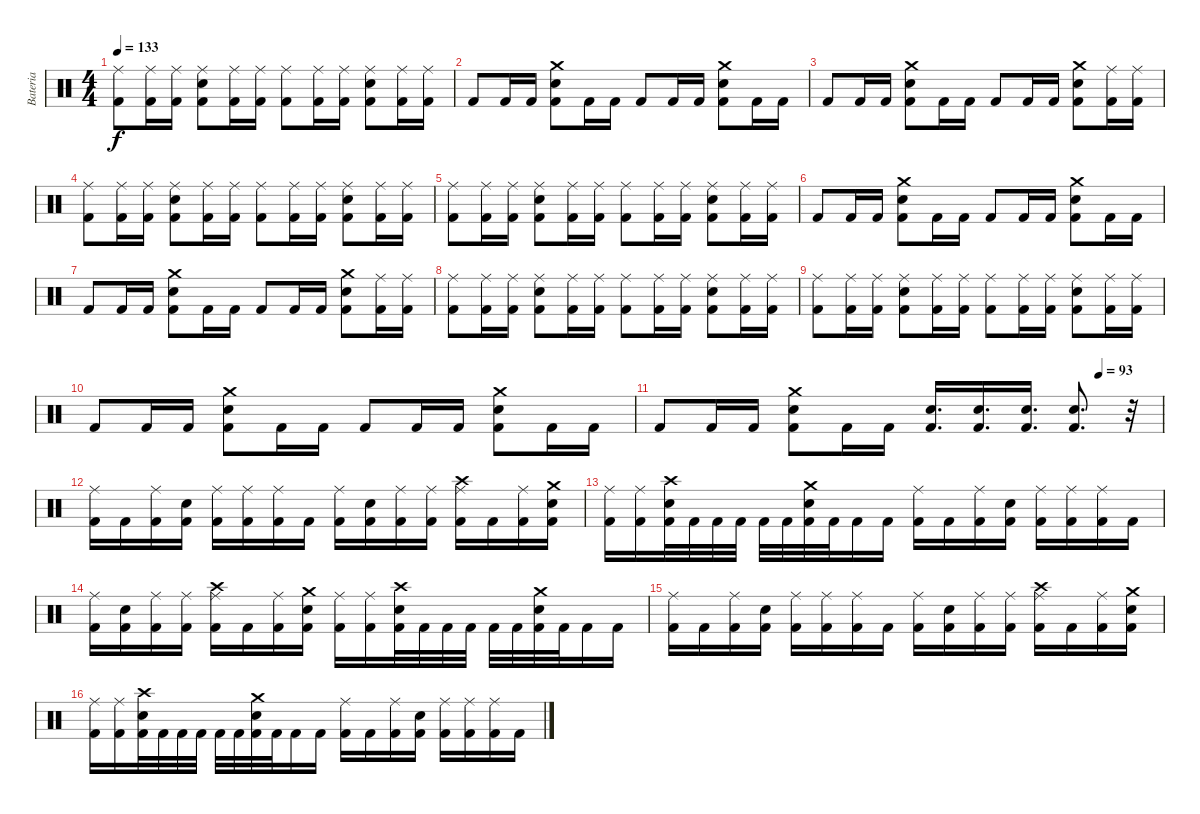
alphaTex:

\track ("Bateria" "Bateria") {instrument percussion}
\staff {score}
\articulation defaults
\ts (4 4)
\tempo 133
\clef neutral
\ks c
("Ride (middle)" "Kick (hit) 2").8{dy f} ("Ride (middle)" "Kick (hit) 2").16 ("Ride (middle)" "Kick (hit) 2").16 ("Snare (hit) 2" "Ride (middle)" "Kick (hit) 2").8 ("Ride (middle)" "Kick (hit) 2").16 ("Ride (middle)" "Kick (hit) 2").16 ("Ride (middle)" "Kick (hit) 2").8 ("Ride (middle)" "Kick (hit) 2").16 ("Ride (middle)" "Kick (hit) 2").16 ("Snare (hit) 2" "Ride (middle)" "Kick (hit) 2").8 ("Ride (middle)" "Kick (hit) 2").16 ("Ride (middle)" "Kick (hit) 2").16 |
"Kick (hit) 2".8 "Kick (hit) 2".16 "Kick (hit) 2".16 ("Crash medium (hit)" "Snare (hit) 2" "Kick (hit) 2").8 "Kick (hit) 2".16 "Kick (hit) 2".16 "Kick (hit) 2".8 "Kick (hit) 2".16 "Kick (hit) 2".16 ("Crash medium (hit)" "Snare (hit) 2" "Kick (hit) 2").8 "Kick (hit) 2".16 "Kick (hit) 2".16 |
"Kick (hit) 2".8 "Kick (hit) 2".16 "Kick (hit) 2".16 ("Crash medium (hit)" "Snare (hit) 2" "Kick (hit) 2").8 "Kick (hit) 2".16 "Kick (hit) 2".16 "Kick (hit) 2".8 "Kick (hit) 2".16 "Kick (hit) 2".16 ("Crash medium (hit)" "Snare (hit) 2" "Kick (hit) 2").8 ("Ride (middle)" "Kick (hit) 2").16 ("Ride (middle)" "Kick (hit) 2").16 |
("Ride (middle)" "Kick (hit) 2").8 ("Ride (middle)" "Kick (hit) 2").16 ("Ride (middle)" "Kick (hit) 2").16 ("Snare (hit) 2" "Ride (middle)" "Kick (hit) 2").8 ("Ride (middle)" "Kick (hit) 2").16 ("Ride (middle)" "Kick (hit) 2").16 ("Ride (middle)" "Kick (hit) 2").8 ("Ride (middle)" "Kick (hit) 2").16 ("Ride (middle)" "Kick (hit) 2").16 ("Snare (hit) 2" "Ride (middle)" "Kick (hit) 2").8 ("Ride (middle)" "Kick (hit) 2").16 ("Ride (middle)" "Kick (hit) 2").16 |
("Ride (middle)" "Kick (hit) 2").8 ("Ride (middle)" "Kick (hit) 2").16 ("Ride (middle)" "Kick (hit) 2").16 ("Snare (hit) 2" "Ride (middle)" "Kick (hit) 2").8 ("Ride (middle)" "Kick (hit) 2").16 ("Ride (middle)" "Kick (hit) 2").16 ("Ride (middle)" "Kick (hit) 2").8 ("Ride (middle)" "Kick (hit) 2").16 ("Ride (middle)" "Kick (hit) 2").16 ("Snare (hit) 2" "Ride (middle)" "Kick (hit) 2").8 ("Ride (middle)" "Kick (hit) 2").16 ("Ride (middle)" "Kick (hit) 2").16 |
"Kick (hit) 2".8 "Kick (hit) 2".16 "Kick (hit) 2".16 ("Crash medium (hit)" "Snare (hit) 2" "Kick (hit) 2").8 "Kick (hit) 2".16 "Kick (hit) 2".16 "Kick (hit) 2".8 "Kick (hit) 2".16 "Kick (hit) 2".16 ("Crash medium (hit)" "Snare (hit) 2" "Kick (hit) 2").8 "Kick (hit) 2".16 "Kick (hit) 2".16 |
"Kick (hit) 2".8 "Kick (hit) 2".16 "Kick (hit) 2".16 ("Crash medium (hit)" "Snare (hit) 2" "Kick (hit) 2").8 "Kick (hit) 2".16 "Kick (hit) 2".16 "Kick (hit) 2".8 "Kick (hit) 2".16 "Kick (hit) 2".16 ("Crash medium (hit)" "Snare (hit) 2" "Kick (hit) 2").8 ("Ride (middle)" "Kick (hit) 2").16 ("Ride (middle)" "Kick (hit) 2").16 |
("Ride (middle)" "Kick (hit) 2").8 ("Ride (middle)" "Kick (hit) 2").16 ("Ride (middle)" "Kick (hit) 2").16 ("Snare (hit) 2" "Ride (middle)" "Kick (hit) 2").8 ("Ride (middle)" "Kick (hit) 2").16 ("Ride (middle)" "Kick (hit) 2").16 ("Ride (middle)" "Kick (hit) 2").8 ("Ride (middle)" "Kick (hit) 2").16 ("Ride (middle)" "Kick (hit) 2").16 ("Snare (hit) 2" "Ride (middle)" "Kick (hit) 2").8 ("Ride (middle)" "Kick (hit) 2").16 ("Ride (middle)" "Kick (hit) 2").16 |
("Ride (middle)" "Kick (hit) 2").8 ("Ride (middle)" "Kick (hit) 2").16 ("Ride (middle)" "Kick (hit) 2").16 ("Snare (hit) 2" "Ride (middle)" "Kick (hit) 2").8 ("Ride (middle)" "Kick (hit) 2").16 ("Ride (middle)" "Kick (hit) 2").16 ("Ride (middle)" "Kick (hit) 2").8 ("Ride (middle)" "Kick (hit) 2").16 ("Ride (middle)" "Kick (hit) 2").16 ("Snare (hit) 2" "Ride (middle)" "Kick (hit) 2").8 ("Ride (middle)" "Kick (hit) 2").16 ("Ride (middle)" "Kick (hit) 2").16 |
"Kick (hit) 2".8 "Kick (hit) 2".16 "Kick (hit) 2".16 ("Crash medium (hit)" "Snare (hit) 2" "Kick (hit) 2").8 "Kick (hit) 2".16 "Kick (hit) 2".16 "Kick (hit) 2".8 "Kick (hit) 2".16 "Kick (hit) 2".16 ("Crash medium (hit)" "Snare (hit) 2" "Kick (hit) 2").8 "Kick (hit) 2".16 "Kick (hit) 2".16 |
\tempo (93 0.875)
"Kick (hit) 2".8 "Kick (hit) 2".16 "Kick (hit) 2".16 ("Crash medium (hit)" "Snare (hit) 2" "Kick (hit) 2").8 "Kick (hit) 2".16 "Kick (hit) 2".16 ("Snare (hit) 2" "Kick (hit) 2").16{d} ("Snare (hit) 2" "Kick (hit) 2").16{d} ("Snare (hit) 2" "Kick (hit) 2").16{d} ("Snare (hit) 2" "Kick (hit) 2").8{d} r.32 |
("Ride (middle)" "Kick (hit) 2").16 "Kick (hit) 2".16 ("Ride (middle)" "Kick (hit) 2").16 ("Snare (hit) 2" "Kick (hit) 2").16 ("Ride (middle)" "Kick (hit) 2").16 ("Ride (middle)" "Kick (hit) 2").16 ("Ride (middle)" "Kick (hit) 2").16 "Kick (hit) 2".16 ("Ride (middle)" "Kick (hit) 2").16 ("Snare (hit) 2" "Kick (hit) 2").16 ("Ride (middle)" "Kick (hit) 2").16 ("Ride (middle)" "Kick (hit) 2").16 ("Crash high (hit)" "Ride (middle)" "Kick (hit) 2").16 "Kick (hit) 2".16 ("Ride (middle)" "Kick (hit) 2").16 ("Crash medium (hit)" "Snare (hit) 2" "Kick (hit) 2").16 |
("Ride (middle)" "Kick (hit) 2").16 ("Ride (middle)" "Kick (hit) 2").16 ("Crash high (hit)" "Snare (hit) 2" "Kick (hit) 2").32 "Kick (hit) 2".32 "Kick (hit) 2".32 "Kick (hit) 2".32 "Kick (hit) 2".32 "Kick (hit) 2".32 ("Crash medium (hit)" "Snare (hit) 2" "Kick (hit) 2").32 "Kick (hit) 2".32 "Kick (hit) 2".16 "Kick (hit) 2".16 ("Ride (middle)" "Kick (hit) 2").16 "Kick (hit) 2".16 ("Ride (middle)" "Kick (hit) 2").16 ("Snare (hit) 2" "Kick (hit) 2").16 ("Ride (middle)" "Kick (hit) 2").16 ("Ride (middle)" "Kick (hit) 2").16 ("Ride (middle)" "Kick (hit) 2").16 "Kick (hit) 2".16 |
("Ride (middle)" "Kick (hit) 2").16 ("Snare (hit) 2" "Kick (hit) 2").16 ("Ride (middle)" "Kick (hit) 2").16 ("Ride (middle)" "Kick (hit) 2").16 ("Crash high (hit)" "Ride (middle)" "Kick (hit) 2").16 "Kick (hit) 2".16 ("Ride (middle)" "Kick (hit) 2").16 ("Crash medium (hit)" "Snare (hit) 2" "Kick (hit) 2").16 ("Ride (middle)" "Kick (hit) 2").16 ("Ride (middle)" "Kick (hit) 2").16 ("Crash high (hit)" "Snare (hit) 2" "Kick (hit) 2").32 "Kick (hit) 2".32 "Kick (hit) 2".32 "Kick (hit) 2".32 "Kick (hit) 2".32 "Kick (hit) 2".32 ("Crash medium (hit)" "Snare (hit) 2" "Kick (hit) 2").32 "Kick (hit) 2".32 "Kick (hit) 2".16 "Kick (hit) 2".16 |
("Ride (middle)" "Kick (hit) 2").16 "Kick (hit) 2".16 ("Ride (middle)" "Kick (hit) 2").16 ("Snare (hit) 2" "Kick (hit) 2").16 ("Ride (middle)" "Kick (hit) 2").16 ("Ride (middle)" "Kick (hit) 2").16 ("Ride (middle)" "Kick (hit) 2").16 "Kick (hit) 2".16 ("Ride (middle)" "Kick (hit) 2").16 ("Snare (hit) 2" "Kick (hit) 2").16 ("Ride (middle)" "Kick (hit) 2").16 ("Ride (middle)" "Kick (hit) 2").16 ("Crash high (hit)" "Ride (middle)" "Kick (hit) 2").16 "Kick (hit) 2".16 ("Ride (middle)" "Kick (hit) 2").16 ("Crash medium (hit)" "Snare (hit) 2" "Kick (hit) 2").16 |
("Ride (middle)" "Kick (hit) 2").16 ("Ride (middle)" "Kick (hit) 2").16 ("Crash high (hit)" "Snare (hit) 2" "Kick (hit) 2").32 "Kick (hit) 2".32 "Kick (hit) 2".32 "Kick (hit) 2".32 "Kick (hit) 2".32 "Kick (hit) 2".32 ("Crash medium (hit)" "Snare (hit) 2" "Kick (hit) 2").32 "Kick (hit) 2".32 "Kick (hit) 2".16 "Kick (hit) 2".16 ("Ride (middle)" "Kick (hit) 2").16 "Kick (hit) 2".16 ("Ride (middle)" "Kick (hit) 2").16 ("Snare (hit) 2" "Kick (hit) 2").16 ("Ride (middle)" "Kick (hit) 2").16 ("Ride (middle)" "Kick (hit) 2").16 ("Ride (middle)" "Kick (hit) 2").16 "Kick (hit) 2".16
